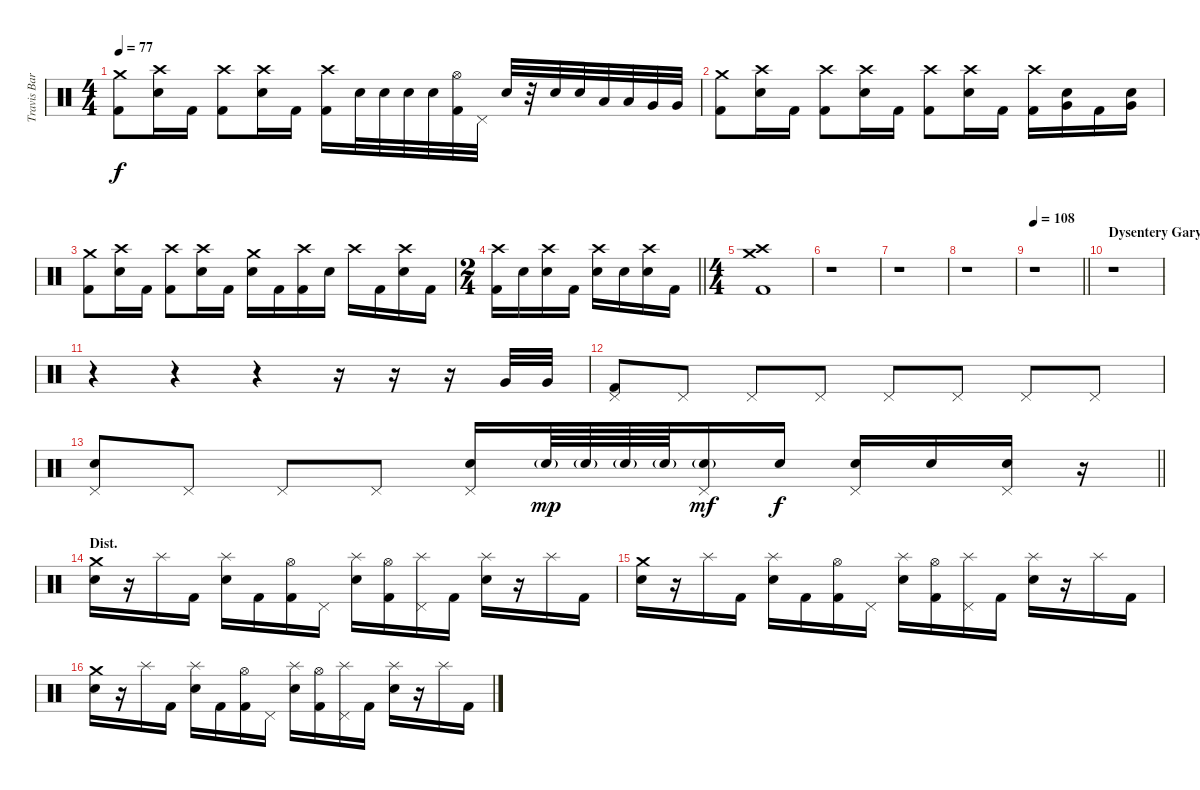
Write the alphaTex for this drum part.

\track ("Travis Barker" "Travis Bar") {instrument percussion}
\staff {score}
\articulation defaults
\ts (4 4)
\tempo 77
\clef neutral
\ks c
("Crash medium (hit)" "Kick (hit) 2").8{dy f} ("Crash high (hit)" "Electric Snare (hit)").16 "Kick (hit) 2".16 ("Crash high (hit)" "Kick (hit) 2").8 ("Crash high (hit)" "Electric Snare (hit)").16 "Kick (hit) 2".16 ("Crash high (hit)" "Kick (hit) 2").16 "Electric Snare (hit)".32 "Electric Snare (hit)".32 "Electric Snare (hit)".32 "Electric Snare (hit)".32 ("Hi-Hat (open)" "Kick (hit) 2").32 "Pedal Hi-Hat (hit)".32 "Electric Snare (hit)".32 r.32 "Electric Snare (hit)".32 "Electric Snare (hit)".32 "Low Tom (hit)".32 "Low Tom (hit)".32 "Very Low Tom (hit)".32 "Very Low Tom (hit)".32 |
("Crash medium (hit)" "Kick (hit) 2").8 ("Crash high (hit)" "Electric Snare (hit)").16 "Kick (hit) 2".16 ("Crash high (hit)" "Kick (hit) 2").8 ("Crash high (hit)" "Electric Snare (hit)").16 "Kick (hit) 2".16 ("Crash high (hit)" "Kick (hit) 2").8 ("Crash high (hit)" "Electric Snare (hit)").16 "Kick (hit) 2".16 ("Crash high (hit)" "Kick (hit) 2").16 ("Electric Snare (hit)" "Very Low Tom (hit)").16 "Kick (hit) 2".16 ("Electric Snare (hit)" "Very Low Tom (hit)").16 |
("Crash medium (hit)" "Kick (hit) 2").8 ("Crash high (hit)" "Electric Snare (hit)").16 "Kick (hit) 2".16 ("Crash high (hit)" "Kick (hit) 2").8 ("Crash high (hit)" "Electric Snare (hit)").16 "Kick (hit) 2".16 ("Crash medium (hit)" "Electric Snare (hit)").16 "Kick (hit) 2".16 ("Crash high (hit)" "Kick (hit) 2").16 "Electric Snare (hit)".16 "Crash high (hit)".16 "Kick (hit) 2".16 ("Crash high (hit)" "Electric Snare (hit)").16 "Kick (hit) 2".16 |
\ts (2 4)
\barLineRight lightlight
("Crash high (hit)" "Kick (hit) 2").16 "Electric Snare (hit)".16 ("Crash high (hit)" "Electric Snare (hit)").16 "Kick (hit) 2".16 ("Crash high (hit)" "Electric Snare (hit)").16 "Electric Snare (hit)".16 ("Crash high (hit)" "Electric Snare (hit)").16 "Kick (hit) 2".16 |
\ts (4 4)
("Crash medium (hit)" "Crash high (hit)" "Kick (hit) 2").1 |
r.1 |
r.1 |
r.1 |
\tempo 108
\barLineRight lightlight
r.1 |
\section ("" "Dysentery Gary")
r.1 |
r.4 r.4 r.4 r.16 r.16 r.16 "Very Low Tom (hit)".32 "Very Low Tom (hit)".32 |
("Pedal Hi-Hat (hit)" "Kick (hit) 2").8 "Pedal Hi-Hat (hit)".8 "Pedal Hi-Hat (hit)".8 "Pedal Hi-Hat (hit)".8 "Pedal Hi-Hat (hit)".8 "Pedal Hi-Hat (hit)".8 "Pedal Hi-Hat (hit)".8 "Pedal Hi-Hat (hit)".8 |
\barLineRight lightlight
("Pedal Hi-Hat (hit)" "Electric Snare (hit)").8 "Pedal Hi-Hat (hit)".8 "Pedal Hi-Hat (hit)".8 "Pedal Hi-Hat (hit)".8 ("Pedal Hi-Hat (hit)" "Electric Snare (hit)").16 "Electric Snare (hit)"{g}.64{dy mp} "Electric Snare (hit)"{g}.64 "Electric Snare (hit)"{g}.64 "Electric Snare (hit)"{g}.64 ("Pedal Hi-Hat (hit)" "Electric Snare (hit)"{g}).16{dy mf} "Electric Snare (hit)".16{dy f} ("Pedal Hi-Hat (hit)" "Electric Snare (hit)").16 "Electric Snare (hit)".16 ("Pedal Hi-Hat (hit)" "Electric Snare (hit)").16 r.16 |
\section ("" "Dist.")
("Crash medium (hit)" "Electric Snare (hit)").16 r.16 "Splash (hit)".16 "Kick (hit) 2".16 ("Splash (hit)" "Electric Snare (hit)").16 "Kick (hit) 2".16 ("Hi-Hat (open)" "Kick (hit) 2").16 "Pedal Hi-Hat (hit)".16 ("Splash (hit)" "Electric Snare (hit)").16 ("Hi-Hat (open)" "Kick (hit) 2").16 ("Pedal Hi-Hat (hit)" "Splash (hit)").16 "Kick (hit) 2".16 ("Splash (hit)" "Electric Snare (hit)").16 r.16 "Splash (hit)".16 "Kick (hit) 2".16 |
("Crash medium (hit)" "Electric Snare (hit)").16 r.16 "Splash (hit)".16 "Kick (hit) 2".16 ("Splash (hit)" "Electric Snare (hit)").16 "Kick (hit) 2".16 ("Hi-Hat (open)" "Kick (hit) 2").16 "Pedal Hi-Hat (hit)".16 ("Splash (hit)" "Electric Snare (hit)").16 ("Hi-Hat (open)" "Kick (hit) 2").16 ("Pedal Hi-Hat (hit)" "Splash (hit)").16 "Kick (hit) 2".16 ("Splash (hit)" "Electric Snare (hit)").16 r.16 "Splash (hit)".16 "Kick (hit) 2".16 |
("Crash medium (hit)" "Electric Snare (hit)").16 r.16 "Splash (hit)".16 "Kick (hit) 2".16 ("Splash (hit)" "Electric Snare (hit)").16 "Kick (hit) 2".16 ("Hi-Hat (open)" "Kick (hit) 2").16 "Pedal Hi-Hat (hit)".16 ("Splash (hit)" "Electric Snare (hit)").16 ("Hi-Hat (open)" "Kick (hit) 2").16 ("Pedal Hi-Hat (hit)" "Splash (hit)").16 "Kick (hit) 2".16 ("Splash (hit)" "Electric Snare (hit)").16 r.16 "Splash (hit)".16 "Kick (hit) 2".16
